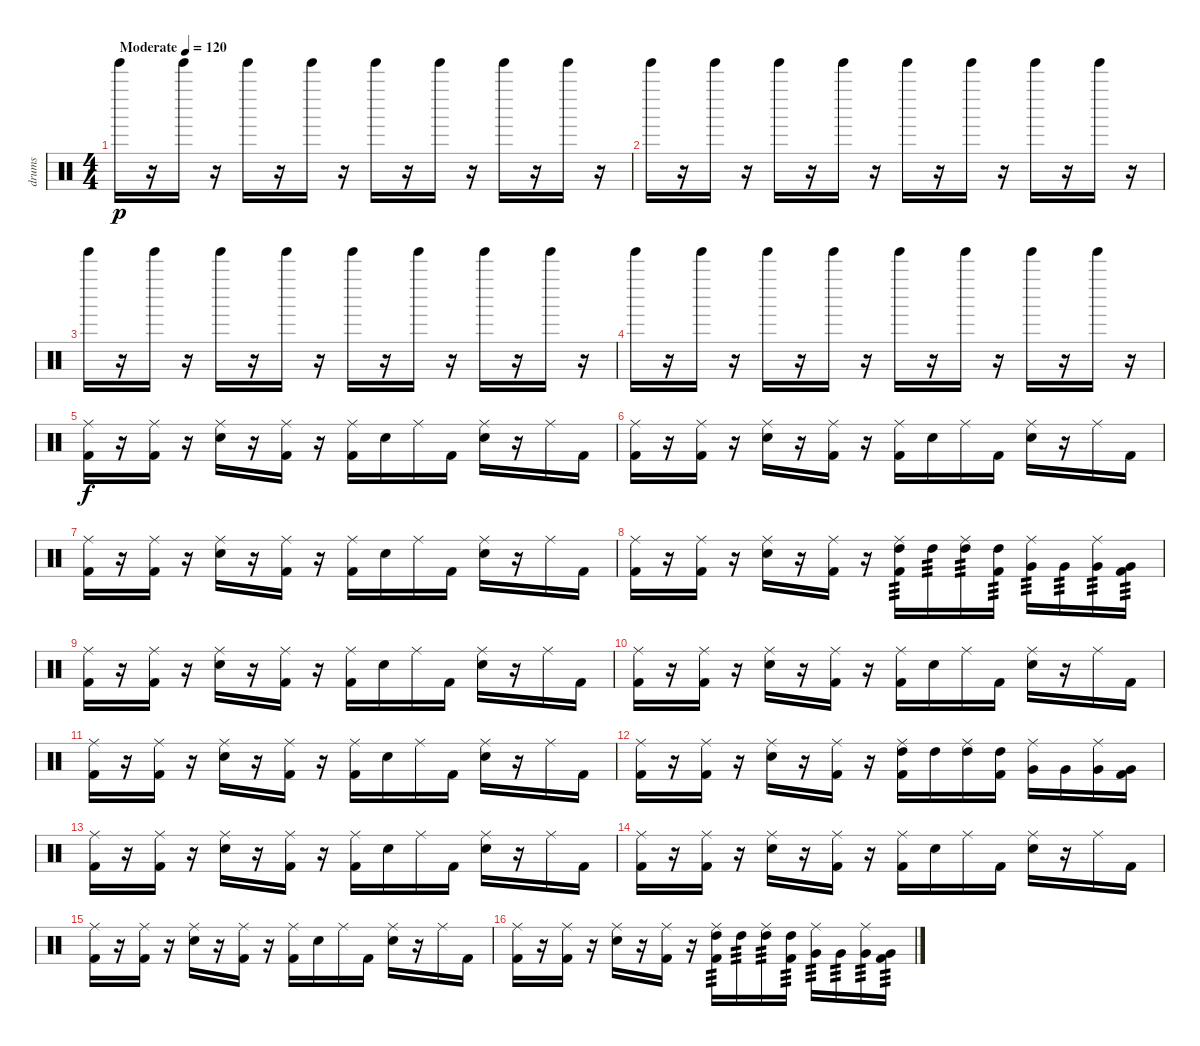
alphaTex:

\track ("drums" "drums") {instrument percussion}
\staff {score}
\articulation defaults
\ts (4 4)
\tempo (120 "Moderate")
\clef neutral
\ks c "Tinkle Bell (hit)".16{dy p}
r.16 "Tinkle Bell (hit)".16 r.16 "Tinkle Bell (hit)".16 r.16 "Tinkle Bell (hit)".16 r.16 "Tinkle Bell (hit)".16 r.16 "Tinkle Bell (hit)".16 r.16 "Tinkle Bell (hit)".16 r.16 "Tinkle Bell (hit)".16 r.16 |
"Tinkle Bell (hit)".16 r.16 "Tinkle Bell (hit)".16 r.16 "Tinkle Bell (hit)".16 r.16 "Tinkle Bell (hit)".16 r.16 "Tinkle Bell (hit)".16 r.16 "Tinkle Bell (hit)".16 r.16 "Tinkle Bell (hit)".16 r.16 "Tinkle Bell (hit)".16 r.16 |
"Tinkle Bell (hit)".16 r.16 "Tinkle Bell (hit)".16 r.16 "Tinkle Bell (hit)".16 r.16 "Tinkle Bell (hit)".16 r.16 "Tinkle Bell (hit)".16 r.16 "Tinkle Bell (hit)".16 r.16 "Tinkle Bell (hit)".16 r.16 "Tinkle Bell (hit)".16 r.16 |
"Tinkle Bell (hit)".16 r.16 "Tinkle Bell (hit)".16 r.16 "Tinkle Bell (hit)".16 r.16 "Tinkle Bell (hit)".16 r.16 "Tinkle Bell (hit)".16 r.16 "Tinkle Bell (hit)".16 r.16 "Tinkle Bell (hit)".16 r.16 "Tinkle Bell (hit)".16 r.16 |
("Ride (middle)" "Kick (hit) 2").16{dy f} r.16 ("Ride (middle)" "Kick (hit) 2").16 r.16 ("Ride (middle)" "Snare (hit) 2").16 r.16 ("Ride (middle)" "Kick (hit) 2").16 r.16 ("Ride (middle)" "Kick (hit) 2").16 "Snare (hit) 2".16 "Ride (middle)".16 "Kick (hit) 2".16 ("Ride (middle)" "Snare (hit) 2").16 r.16 "Ride (middle)".16 "Kick (hit) 2".16 |
("Ride (middle)" "Kick (hit) 2").16 r.16 ("Ride (middle)" "Kick (hit) 2").16 r.16 ("Ride (middle)" "Snare (hit) 2").16 r.16 ("Ride (middle)" "Kick (hit) 2").16 r.16 ("Ride (middle)" "Kick (hit) 2").16 "Snare (hit) 2".16 "Ride (middle)".16 "Kick (hit) 2".16 ("Ride (middle)" "Snare (hit) 2").16 r.16 "Ride (middle)".16 "Kick (hit) 2".16 |
("Ride (middle)" "Kick (hit) 2").16 r.16 ("Ride (middle)" "Kick (hit) 2").16 r.16 ("Ride (middle)" "Snare (hit) 2").16 r.16 ("Ride (middle)" "Kick (hit) 2").16 r.16 ("Ride (middle)" "Kick (hit) 2").16 "Snare (hit) 2".16 "Ride (middle)".16 "Kick (hit) 2".16 ("Ride (middle)" "Snare (hit) 2").16 r.16 "Ride (middle)".16 "Kick (hit) 2".16 |
("Ride (middle)" "Kick (hit) 2").16 r.16 ("Ride (middle)" "Kick (hit) 2").16 r.16 ("Ride (middle)" "Snare (hit) 2").16 r.16 ("Ride (middle)" "Kick (hit) 2").16 r.16 ("Ride (middle)" "High Tom (hit)" "Kick (hit) 2").16{tp 3} "High Tom (hit)".16{tp 3} ("Ride (middle)" "High Tom (hit)").16{tp 3} ("High Tom (hit)" "Kick (hit) 2").16{tp 3} ("Ride (middle)" "Very Low Tom (hit)").16{tp 3} "Very Low Tom (hit)".16{tp 3} ("Ride (middle)" "Very Low Tom (hit)").16{tp 3} ("Very Low Tom (hit)" "Kick (hit) 2").16{tp 3} |
("Ride (middle)" "Kick (hit) 2").16 r.16 ("Ride (middle)" "Kick (hit) 2").16 r.16 ("Ride (middle)" "Snare (hit) 2").16 r.16 ("Ride (middle)" "Kick (hit) 2").16 r.16 ("Ride (middle)" "Kick (hit) 2").16 "Snare (hit) 2".16 "Ride (middle)".16 "Kick (hit) 2".16 ("Ride (middle)" "Snare (hit) 2").16 r.16 "Ride (middle)".16 "Kick (hit) 2".16 |
("Ride (middle)" "Kick (hit) 2").16 r.16 ("Ride (middle)" "Kick (hit) 2").16 r.16 ("Ride (middle)" "Snare (hit) 2").16 r.16 ("Ride (middle)" "Kick (hit) 2").16 r.16 ("Ride (middle)" "Kick (hit) 2").16 "Snare (hit) 2".16 "Ride (middle)".16 "Kick (hit) 2".16 ("Ride (middle)" "Snare (hit) 2").16 r.16 "Ride (middle)".16 "Kick (hit) 2".16 |
("Ride (middle)" "Kick (hit) 2").16 r.16 ("Ride (middle)" "Kick (hit) 2").16 r.16 ("Ride (middle)" "Snare (hit) 2").16 r.16 ("Ride (middle)" "Kick (hit) 2").16 r.16 ("Ride (middle)" "Kick (hit) 2").16 "Snare (hit) 2".16 "Ride (middle)".16 "Kick (hit) 2".16 ("Ride (middle)" "Snare (hit) 2").16 r.16 "Ride (middle)".16 "Kick (hit) 2".16 |
("Ride (middle)" "Kick (hit) 2").16 r.16 ("Ride (middle)" "Kick (hit) 2").16 r.16 ("Ride (middle)" "Snare (hit) 2").16 r.16 ("Ride (middle)" "Kick (hit) 2").16 r.16 ("Ride (middle)" "High Tom (hit)" "Kick (hit) 2").16 "High Tom (hit)".16 ("Ride (middle)" "High Tom (hit)").16 ("High Tom (hit)" "Kick (hit) 2").16 ("Ride (middle)" "Very Low Tom (hit)").16 "Very Low Tom (hit)".16 ("Ride (middle)" "Very Low Tom (hit)").16 ("Very Low Tom (hit)" "Kick (hit) 2").16 |
("Ride (middle)" "Kick (hit) 2").16 r.16 ("Ride (middle)" "Kick (hit) 2").16 r.16 ("Ride (middle)" "Snare (hit) 2").16 r.16 ("Ride (middle)" "Kick (hit) 2").16 r.16 ("Ride (middle)" "Kick (hit) 2").16 "Snare (hit) 2".16 "Ride (middle)".16 "Kick (hit) 2".16 ("Ride (middle)" "Snare (hit) 2").16 r.16 "Ride (middle)".16 "Kick (hit) 2".16 |
("Ride (middle)" "Kick (hit) 2").16 r.16 ("Ride (middle)" "Kick (hit) 2").16 r.16 ("Ride (middle)" "Snare (hit) 2").16 r.16 ("Ride (middle)" "Kick (hit) 2").16 r.16 ("Ride (middle)" "Kick (hit) 2").16 "Snare (hit) 2".16 "Ride (middle)".16 "Kick (hit) 2".16 ("Ride (middle)" "Snare (hit) 2").16 r.16 "Ride (middle)".16 "Kick (hit) 2".16 |
("Ride (middle)" "Kick (hit) 2").16 r.16 ("Ride (middle)" "Kick (hit) 2").16 r.16 ("Ride (middle)" "Snare (hit) 2").16 r.16 ("Ride (middle)" "Kick (hit) 2").16 r.16 ("Ride (middle)" "Kick (hit) 2").16 "Snare (hit) 2".16 "Ride (middle)".16 "Kick (hit) 2".16 ("Ride (middle)" "Snare (hit) 2").16 r.16 "Ride (middle)".16 "Kick (hit) 2".16 |
("Ride (middle)" "Kick (hit) 2").16 r.16 ("Ride (middle)" "Kick (hit) 2").16 r.16 ("Ride (middle)" "Snare (hit) 2").16 r.16 ("Ride (middle)" "Kick (hit) 2").16 r.16 ("Ride (middle)" "High Tom (hit)" "Kick (hit) 2").16{tp 3} "High Tom (hit)".16{tp 3} ("Ride (middle)" "High Tom (hit)").16{tp 3} ("High Tom (hit)" "Kick (hit) 2").16{tp 3} ("Ride (middle)" "Very Low Tom (hit)").16{tp 3} "Very Low Tom (hit)".16{tp 3} ("Ride (middle)" "Very Low Tom (hit)").16{tp 3} ("Very Low Tom (hit)" "Kick (hit) 2").16{tp 3}
